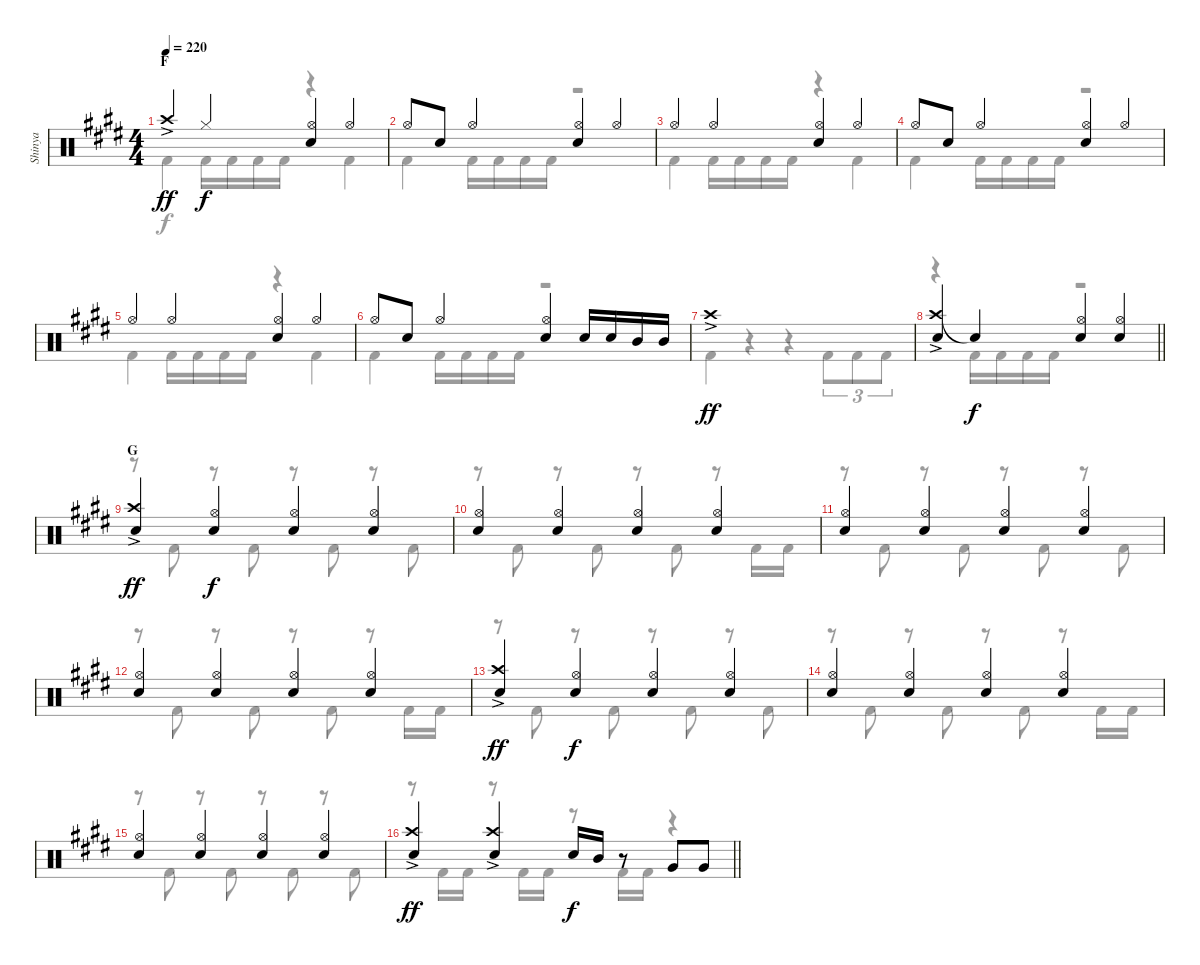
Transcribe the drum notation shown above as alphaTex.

\track ("Shinya" "Shinya") {instrument percussion}
\staff {score}
\articulation defaults
\voice
\ts (4 4)
\section ("" "F")
\tempo 220
\clef neutral
\ks c#minor "Crash high (hit)"{ac}.4{dy ff} "Hi-Hat (closed)".4{dy f}
("Hi-Hat (open)" "Snare (hit) 2").4 "Hi-Hat (open)".4 |
"Hi-Hat (open)".8 "Snare (hit) 2".8 "Hi-Hat (open)".4 ("Hi-Hat (open)" "Snare (hit) 2").4 "Hi-Hat (open)".4 |
"Hi-Hat (open)".4 "Hi-Hat (open)".4 ("Hi-Hat (open)" "Snare (hit) 2").4 "Hi-Hat (open)".4 |
"Hi-Hat (open)".8 "Snare (hit) 2".8 "Hi-Hat (open)".4 ("Hi-Hat (open)" "Snare (hit) 2").4 "Hi-Hat (open)".4 |
"Hi-Hat (open)".4 "Hi-Hat (open)".4 ("Hi-Hat (open)" "Snare (hit) 2").4 "Hi-Hat (open)".4 |
"Hi-Hat (open)".8 "Snare (hit) 2".8 "Hi-Hat (open)".4 ("Hi-Hat (open)" "Snare (hit) 2").4 "Snare (hit) 2".16 "Snare (hit) 2".16 "Mid Tom (hit)".16 "Mid Tom (hit)".16 |
"Crash high (hit)"{ac}.1{dy ff} |
\barLineRight lightlight
("Crash high (hit)"{ac} "Snare (hit) 2").4 "Snare (hit)"{t}.4{dy f} ("Hi-Hat (open)" "Snare (hit) 2").4 ("Hi-Hat (open)" "Snare (hit) 2").4 |
\section ("" "G")
("Crash high (hit)"{ac} "Snare (hit) 2").4{dy ff} ("Hi-Hat (open)" "Snare (hit) 2").4{dy f} ("Hi-Hat (open)" "Snare (hit) 2").4 ("Hi-Hat (open)" "Snare (hit) 2").4 |
("Hi-Hat (open)" "Snare (hit) 2").4 ("Hi-Hat (open)" "Snare (hit) 2").4 ("Hi-Hat (open)" "Snare (hit) 2").4 ("Hi-Hat (open)" "Snare (hit) 2").4 |
("Hi-Hat (open)" "Snare (hit) 2").4 ("Hi-Hat (open)" "Snare (hit) 2").4 ("Hi-Hat (open)" "Snare (hit) 2").4 ("Hi-Hat (open)" "Snare (hit) 2").4 |
("Hi-Hat (open)" "Snare (hit) 2").4 ("Hi-Hat (open)" "Snare (hit) 2").4 ("Hi-Hat (open)" "Snare (hit) 2").4 ("Hi-Hat (open)" "Snare (hit) 2").4 |
("Crash high (hit)"{ac} "Snare (hit) 2").4{dy ff} ("Hi-Hat (open)" "Snare (hit) 2").4{dy f} ("Hi-Hat (open)" "Snare (hit) 2").4 ("Hi-Hat (open)" "Snare (hit) 2").4 |
("Hi-Hat (open)" "Snare (hit) 2").4 ("Hi-Hat (open)" "Snare (hit) 2").4 ("Hi-Hat (open)" "Snare (hit) 2").4 ("Hi-Hat (open)" "Snare (hit) 2").4 |
("Hi-Hat (open)" "Snare (hit) 2").4 ("Hi-Hat (open)" "Snare (hit) 2").4 ("Hi-Hat (open)" "Snare (hit) 2").4 ("Hi-Hat (open)" "Snare (hit) 2").4 |
\barLineRight lightlight
("Crash high (hit)"{ac} "Snare (hit) 2").4{dy ff} ("Crash high (hit)"{ac} "Snare (hit) 2").4 "Snare (hit) 2".16{dy f} "Mid Tom (hit)".16 r.8 "Very Low Tom (hit)".8 "Very Low Tom (hit)".8
\voice
\clef neutral
\ottava regular
\simile none
\ks c#minor "Kick (hit) 2".4{dy f} "Kick (hit) 2".16 "Kick (hit) 2".16 "Kick (hit) 2".16 "Kick (hit) 2".16
r.4 "Kick (hit) 2".4 |
"Kick (hit) 2".4 "Kick (hit) 2".16 "Kick (hit) 2".16 "Kick (hit) 2".16 "Kick (hit) 2".16 r.2 |
"Kick (hit) 2".4 "Kick (hit) 2".16 "Kick (hit) 2".16 "Kick (hit) 2".16 "Kick (hit) 2".16 r.4 "Kick (hit) 2".4 |
"Kick (hit) 2".4 "Kick (hit) 2".16 "Kick (hit) 2".16 "Kick (hit) 2".16 "Kick (hit) 2".16 r.2 |
"Kick (hit) 2".4 "Kick (hit) 2".16 "Kick (hit) 2".16 "Kick (hit) 2".16 "Kick (hit) 2".16 r.4 "Kick (hit) 2".4 |
"Kick (hit) 2".4 "Kick (hit) 2".16 "Kick (hit) 2".16 "Kick (hit) 2".16 "Kick (hit) 2".16 r.2 |
"Kick (hit) 2".4 r.4 r.4 "Kick (hit) 2".8{tu (3 2)} "Kick (hit) 2".8{tu (3 2)} "Kick (hit) 2".8{tu (3 2)} |
\barLineRight lightlight
r.4 "Kick (hit) 2".16 "Kick (hit) 2".16 "Kick (hit) 2".16 "Kick (hit) 2".16 r.2 |
r.8 "Kick (hit) 2".8 r.8 "Kick (hit) 2".8 r.8 "Kick (hit) 2".8 r.8 "Kick (hit) 2".8 |
r.8 "Kick (hit) 2".8 r.8 "Kick (hit) 2".8 r.8 "Kick (hit) 2".8 r.8 "Kick (hit) 2".16 "Kick (hit) 2".16 |
r.8 "Kick (hit) 2".8 r.8 "Kick (hit) 2".8 r.8 "Kick (hit) 2".8 r.8 "Kick (hit) 2".8 |
r.8 "Kick (hit) 2".8 r.8 "Kick (hit) 2".8 r.8 "Kick (hit) 2".8 r.8 "Kick (hit) 2".16 "Kick (hit) 2".16 |
r.8 "Kick (hit) 2".8 r.8 "Kick (hit) 2".8 r.8 "Kick (hit) 2".8 r.8 "Kick (hit) 2".8 |
r.8 "Kick (hit) 2".8 r.8 "Kick (hit) 2".8 r.8 "Kick (hit) 2".8 r.8 "Kick (hit) 2".16 "Kick (hit) 2".16 |
r.8 "Kick (hit) 2".8 r.8 "Kick (hit) 2".8 r.8 "Kick (hit) 2".8 r.8 "Kick (hit) 2".8 |
\barLineRight lightlight
r.8 "Kick (hit) 2".16 "Kick (hit) 2".16 r.8 "Kick (hit) 2".16 "Kick (hit) 2".16 r.8 "Kick (hit) 2".16 "Kick (hit) 2".16 r.4
